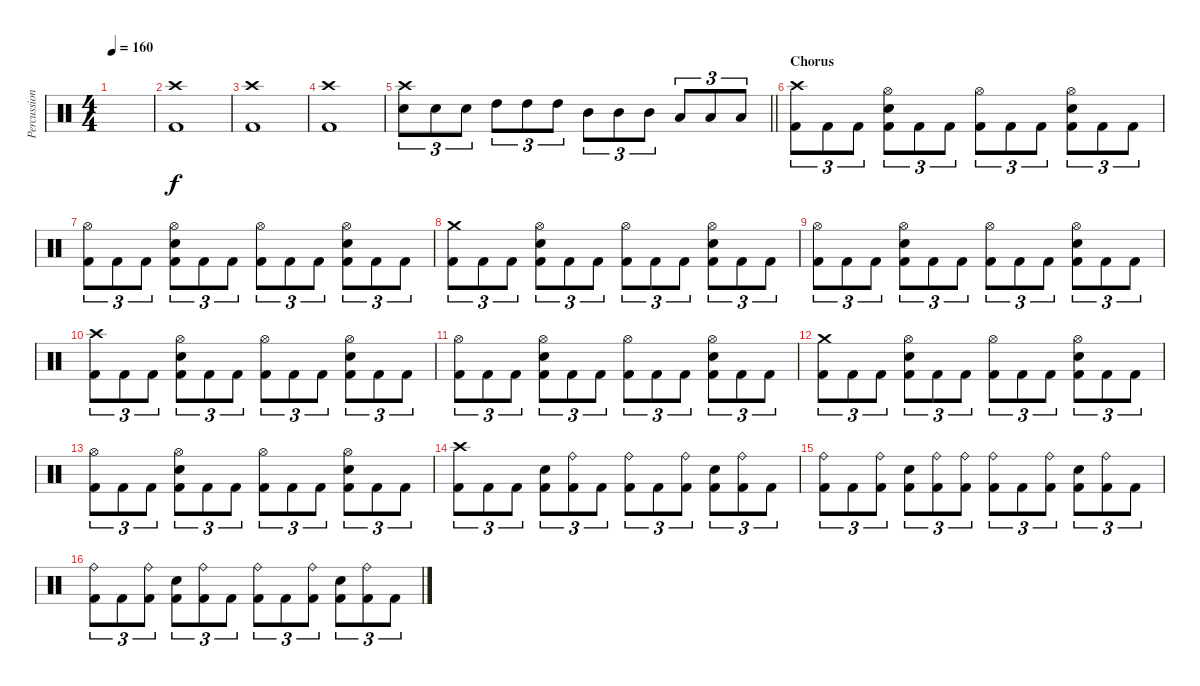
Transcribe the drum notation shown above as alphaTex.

\track ("Percussion" "Percussion") {instrument percussion}
\staff {score}
\articulation defaults
\ts (4 4)
\tempo 160
\clef neutral
\ks c
|
("Crash high (hit)" "Kick (hit) 2").1 |
("Crash high (hit)" "Kick (hit) 2").1 |
("Crash high (hit)" "Kick (hit) 2").1 |
\barLineRight lightlight
("Crash high (hit)" "Snare (hit) 2").8{tu (3 2)} "Snare (hit) 2".8{tu (3 2)} "Snare (hit) 2".8{tu (3 2)} "High Tom (hit)".8{tu (3 2)} "High Tom (hit)".8{tu (3 2)} "High Tom (hit)".8{tu (3 2)} "Mid Tom (hit)".8{tu (3 2)} "Mid Tom (hit)".8{tu (3 2)} "Mid Tom (hit)".8{tu (3 2)} "Low Tom (hit)".8{tu (3 2)} "Low Tom (hit)".8{tu (3 2)} "Low Tom (hit)".8{tu (3 2)} |
\section ("" "Chorus")
("Crash high (hit)" "Kick (hit) 2").8{tu (3 2)} "Kick (hit) 2".8{tu (3 2)} "Kick (hit) 2".8{tu (3 2)} ("Hi-Hat (open)" "Snare (hit) 2" "Kick (hit) 2").8{tu (3 2)} "Kick (hit) 2".8{tu (3 2)} "Kick (hit) 2".8{tu (3 2)} ("Hi-Hat (open)" "Kick (hit) 2").8{tu (3 2)} "Kick (hit) 2".8{tu (3 2)} "Kick (hit) 2".8{tu (3 2)} ("Hi-Hat (open)" "Snare (hit) 2" "Kick (hit) 2").8{tu (3 2)} "Kick (hit) 2".8{tu (3 2)} "Kick (hit) 2".8{tu (3 2)} |
("Hi-Hat (open)" "Kick (hit) 2").8{tu (3 2)} "Kick (hit) 2".8{tu (3 2)} "Kick (hit) 2".8{tu (3 2)} ("Hi-Hat (open)" "Snare (hit) 2" "Kick (hit) 2").8{tu (3 2)} "Kick (hit) 2".8{tu (3 2)} "Kick (hit) 2".8{tu (3 2)} ("Hi-Hat (open)" "Kick (hit) 2").8{tu (3 2)} "Kick (hit) 2".8{tu (3 2)} "Kick (hit) 2".8{tu (3 2)} ("Hi-Hat (open)" "Snare (hit) 2" "Kick (hit) 2").8{tu (3 2)} "Kick (hit) 2".8{tu (3 2)} "Kick (hit) 2".8{tu (3 2)} |
("Crash medium (hit)" "Kick (hit) 2").8{tu (3 2)} "Kick (hit) 2".8{tu (3 2)} "Kick (hit) 2".8{tu (3 2)} ("Hi-Hat (open)" "Snare (hit) 2" "Kick (hit) 2").8{tu (3 2)} "Kick (hit) 2".8{tu (3 2)} "Kick (hit) 2".8{tu (3 2)} ("Hi-Hat (open)" "Kick (hit) 2").8{tu (3 2)} "Kick (hit) 2".8{tu (3 2)} "Kick (hit) 2".8{tu (3 2)} ("Hi-Hat (open)" "Snare (hit) 2" "Kick (hit) 2").8{tu (3 2)} "Kick (hit) 2".8{tu (3 2)} "Kick (hit) 2".8{tu (3 2)} |
("Hi-Hat (open)" "Kick (hit) 2").8{tu (3 2)} "Kick (hit) 2".8{tu (3 2)} "Kick (hit) 2".8{tu (3 2)} ("Hi-Hat (open)" "Snare (hit) 2" "Kick (hit) 2").8{tu (3 2)} "Kick (hit) 2".8{tu (3 2)} "Kick (hit) 2".8{tu (3 2)} ("Hi-Hat (open)" "Kick (hit) 2").8{tu (3 2)} "Kick (hit) 2".8{tu (3 2)} "Kick (hit) 2".8{tu (3 2)} ("Hi-Hat (open)" "Snare (hit) 2" "Kick (hit) 2").8{tu (3 2)} "Kick (hit) 2".8{tu (3 2)} "Kick (hit) 2".8{tu (3 2)} |
("Crash high (hit)" "Kick (hit) 2").8{tu (3 2)} "Kick (hit) 2".8{tu (3 2)} "Kick (hit) 2".8{tu (3 2)} ("Hi-Hat (open)" "Snare (hit) 2" "Kick (hit) 2").8{tu (3 2)} "Kick (hit) 2".8{tu (3 2)} "Kick (hit) 2".8{tu (3 2)} ("Hi-Hat (open)" "Kick (hit) 2").8{tu (3 2)} "Kick (hit) 2".8{tu (3 2)} "Kick (hit) 2".8{tu (3 2)} ("Hi-Hat (open)" "Snare (hit) 2" "Kick (hit) 2").8{tu (3 2)} "Kick (hit) 2".8{tu (3 2)} "Kick (hit) 2".8{tu (3 2)} |
("Hi-Hat (open)" "Kick (hit) 2").8{tu (3 2)} "Kick (hit) 2".8{tu (3 2)} "Kick (hit) 2".8{tu (3 2)} ("Hi-Hat (open)" "Snare (hit) 2" "Kick (hit) 2").8{tu (3 2)} "Kick (hit) 2".8{tu (3 2)} "Kick (hit) 2".8{tu (3 2)} ("Hi-Hat (open)" "Kick (hit) 2").8{tu (3 2)} "Kick (hit) 2".8{tu (3 2)} "Kick (hit) 2".8{tu (3 2)} ("Hi-Hat (open)" "Snare (hit) 2" "Kick (hit) 2").8{tu (3 2)} "Kick (hit) 2".8{tu (3 2)} "Kick (hit) 2".8{tu (3 2)} |
("Crash medium (hit)" "Kick (hit) 2").8{tu (3 2)} "Kick (hit) 2".8{tu (3 2)} "Kick (hit) 2".8{tu (3 2)} ("Hi-Hat (open)" "Snare (hit) 2" "Kick (hit) 2").8{tu (3 2)} "Kick (hit) 2".8{tu (3 2)} "Kick (hit) 2".8{tu (3 2)} ("Hi-Hat (open)" "Kick (hit) 2").8{tu (3 2)} "Kick (hit) 2".8{tu (3 2)} "Kick (hit) 2".8{tu (3 2)} ("Hi-Hat (open)" "Snare (hit) 2" "Kick (hit) 2").8{tu (3 2)} "Kick (hit) 2".8{tu (3 2)} "Kick (hit) 2".8{tu (3 2)} |
("Hi-Hat (open)" "Kick (hit) 2").8{tu (3 2)} "Kick (hit) 2".8{tu (3 2)} "Kick (hit) 2".8{tu (3 2)} ("Hi-Hat (open)" "Snare (hit) 2" "Kick (hit) 2").8{tu (3 2)} "Kick (hit) 2".8{tu (3 2)} "Kick (hit) 2".8{tu (3 2)} ("Hi-Hat (open)" "Kick (hit) 2").8{tu (3 2)} "Kick (hit) 2".8{tu (3 2)} "Kick (hit) 2".8{tu (3 2)} ("Hi-Hat (open)" "Snare (hit) 2" "Kick (hit) 2").8{tu (3 2)} "Kick (hit) 2".8{tu (3 2)} "Kick (hit) 2".8{tu (3 2)} |
("Crash high (hit)" "Kick (hit) 2").8{tu (3 2)} "Kick (hit) 2".8{tu (3 2)} "Kick (hit) 2".8{tu (3 2)} ("Snare (hit) 2" "Kick (hit) 2").8{tu (3 2)} ("Ride (bell)" "Kick (hit) 2").8{tu (3 2)} "Kick (hit) 2".8{tu (3 2)} ("Ride (bell)" "Kick (hit) 2").8{tu (3 2)} "Kick (hit) 2".8{tu (3 2)} ("Ride (bell)" "Kick (hit) 2").8{tu (3 2)} ("Snare (hit) 2" "Kick (hit) 2").8{tu (3 2)} ("Ride (bell)" "Kick (hit) 2").8{tu (3 2)} "Kick (hit) 2".8{tu (3 2)} |
("Ride (bell)" "Kick (hit) 2").8{tu (3 2)} "Kick (hit) 2".8{tu (3 2)} ("Ride (bell)" "Kick (hit) 2").8{tu (3 2)} ("Snare (hit) 2" "Kick (hit) 2").8{tu (3 2)} ("Ride (bell)" "Kick (hit) 2").8{tu (3 2)} ("Ride (bell)" "Kick (hit) 2").8{tu (3 2)} ("Ride (bell)" "Kick (hit) 2").8{tu (3 2)} "Kick (hit) 2".8{tu (3 2)} ("Ride (bell)" "Kick (hit) 2").8{tu (3 2)} ("Snare (hit) 2" "Kick (hit) 2").8{tu (3 2)} ("Ride (bell)" "Kick (hit) 2").8{tu (3 2)} "Kick (hit) 2".8{tu (3 2)} |
("Ride (bell)" "Kick (hit) 2").8{tu (3 2)} "Kick (hit) 2".8{tu (3 2)} ("Ride (bell)" "Kick (hit) 2").8{tu (3 2)} ("Snare (hit) 2" "Kick (hit) 2").8{tu (3 2)} ("Ride (bell)" "Kick (hit) 2").8{tu (3 2)} "Kick (hit) 2".8{tu (3 2)} ("Ride (bell)" "Kick (hit) 2").8{tu (3 2)} "Kick (hit) 2".8{tu (3 2)} ("Ride (bell)" "Kick (hit) 2").8{tu (3 2)} ("Snare (hit) 2" "Kick (hit) 2").8{tu (3 2)} ("Ride (bell)" "Kick (hit) 2").8{tu (3 2)} "Kick (hit) 2".8{tu (3 2)}
